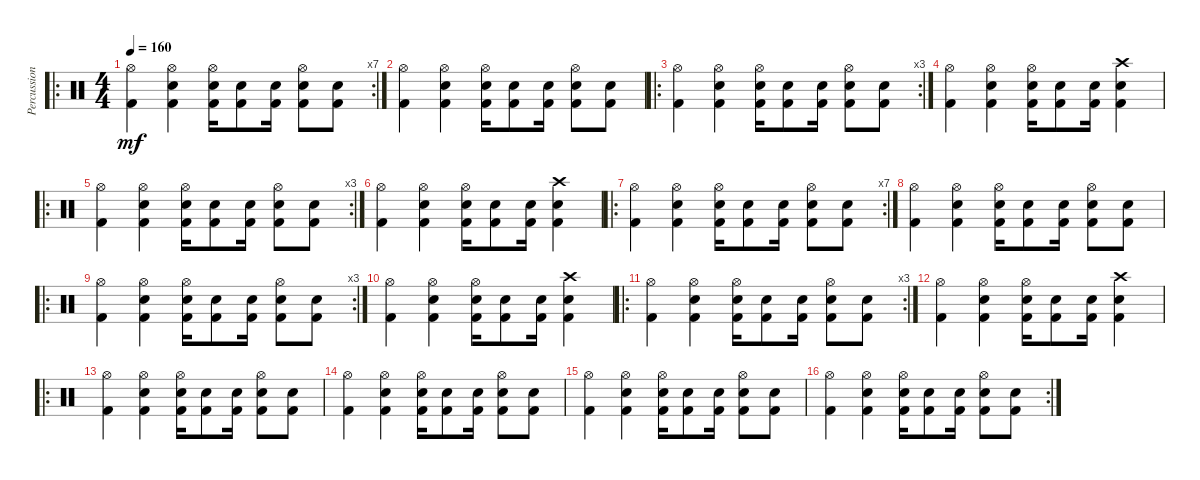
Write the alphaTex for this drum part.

\track ("Percussion" "Percussion") {instrument percussion}
\staff {score}
\articulation defaults
\ro
\rc 7
\ts (4 4)
\tempo 160
\clef neutral
\ks c
("Hi-Hat (open)" "Kick (hit) 2").4{dy mf} ("Hi-Hat (open)" "Electric Snare (hit)" "Kick (hit) 2").4 ("Hi-Hat (open)" "Electric Snare (hit)" "Kick (hit) 2").16 ("Electric Snare (hit)" "Kick (hit) 2").8 ("Electric Snare (hit)" "Kick (hit) 2").16 ("Hi-Hat (open)" "Electric Snare (hit)" "Kick (hit) 2").8 ("Electric Snare (hit)" "Kick (hit) 2").8 |
("Hi-Hat (open)" "Kick (hit) 2").4 ("Hi-Hat (open)" "Electric Snare (hit)" "Kick (hit) 2").4 ("Hi-Hat (open)" "Electric Snare (hit)" "Kick (hit) 2").16 ("Electric Snare (hit)" "Kick (hit) 2").8 ("Electric Snare (hit)" "Kick (hit) 2").16 ("Hi-Hat (open)" "Electric Snare (hit)" "Kick (hit) 2").8 ("Electric Snare (hit)" "Kick (hit) 2").8 |
\ro
\rc 3
("Hi-Hat (open)" "Kick (hit) 2").4 ("Hi-Hat (open)" "Electric Snare (hit)" "Kick (hit) 2").4 ("Hi-Hat (open)" "Electric Snare (hit)" "Kick (hit) 2").16 ("Electric Snare (hit)" "Kick (hit) 2").8 ("Electric Snare (hit)" "Kick (hit) 2").16 ("Hi-Hat (open)" "Electric Snare (hit)" "Kick (hit) 2").8 ("Electric Snare (hit)" "Kick (hit) 2").8 |
("Hi-Hat (open)" "Kick (hit) 2").4 ("Hi-Hat (open)" "Electric Snare (hit)" "Kick (hit) 2").4 ("Hi-Hat (open)" "Electric Snare (hit)" "Kick (hit) 2").16 ("Electric Snare (hit)" "Kick (hit) 2").8 ("Electric Snare (hit)" "Kick (hit) 2").16 ("Crash high (hit)" "Electric Snare (hit)" "Kick (hit) 2").4 |
\ro
\rc 3
("Hi-Hat (open)" "Kick (hit) 2").4 ("Hi-Hat (open)" "Electric Snare (hit)" "Kick (hit) 2").4 ("Hi-Hat (open)" "Electric Snare (hit)" "Kick (hit) 2").16 ("Electric Snare (hit)" "Kick (hit) 2").8 ("Electric Snare (hit)" "Kick (hit) 2").16 ("Hi-Hat (open)" "Electric Snare (hit)" "Kick (hit) 2").8 ("Electric Snare (hit)" "Kick (hit) 2").8 |
("Hi-Hat (open)" "Kick (hit) 2").4 ("Hi-Hat (open)" "Electric Snare (hit)" "Kick (hit) 2").4 ("Hi-Hat (open)" "Electric Snare (hit)" "Kick (hit) 2").16 ("Electric Snare (hit)" "Kick (hit) 2").8 ("Electric Snare (hit)" "Kick (hit) 2").16 ("Crash high (hit)" "Electric Snare (hit)" "Kick (hit) 2").4 |
\ro
\rc 7
("Hi-Hat (open)" "Kick (hit) 2").4 ("Hi-Hat (open)" "Electric Snare (hit)" "Kick (hit) 2").4 ("Hi-Hat (open)" "Electric Snare (hit)" "Kick (hit) 2").16 ("Electric Snare (hit)" "Kick (hit) 2").8 ("Electric Snare (hit)" "Kick (hit) 2").16 ("Hi-Hat (open)" "Electric Snare (hit)" "Kick (hit) 2").8 ("Electric Snare (hit)" "Kick (hit) 2").8 |
("Hi-Hat (open)" "Kick (hit) 2").4 ("Hi-Hat (open)" "Electric Snare (hit)" "Kick (hit) 2").4 ("Hi-Hat (open)" "Electric Snare (hit)" "Kick (hit) 2").16 ("Electric Snare (hit)" "Kick (hit) 2").8 ("Electric Snare (hit)" "Kick (hit) 2").16 ("Hi-Hat (open)" "Electric Snare (hit)" "Kick (hit) 2").8 ("Electric Snare (hit)" "Kick (hit) 2").8 |
\ro
\rc 3
("Hi-Hat (open)" "Kick (hit) 2").4 ("Hi-Hat (open)" "Electric Snare (hit)" "Kick (hit) 2").4 ("Hi-Hat (open)" "Electric Snare (hit)" "Kick (hit) 2").16 ("Electric Snare (hit)" "Kick (hit) 2").8 ("Electric Snare (hit)" "Kick (hit) 2").16 ("Hi-Hat (open)" "Electric Snare (hit)" "Kick (hit) 2").8 ("Electric Snare (hit)" "Kick (hit) 2").8 |
("Hi-Hat (open)" "Kick (hit) 2").4 ("Hi-Hat (open)" "Electric Snare (hit)" "Kick (hit) 2").4 ("Hi-Hat (open)" "Electric Snare (hit)" "Kick (hit) 2").16 ("Electric Snare (hit)" "Kick (hit) 2").8 ("Electric Snare (hit)" "Kick (hit) 2").16 ("Crash high (hit)" "Electric Snare (hit)" "Kick (hit) 2").4 |
\ro
\rc 3
("Hi-Hat (open)" "Kick (hit) 2").4 ("Hi-Hat (open)" "Electric Snare (hit)" "Kick (hit) 2").4 ("Hi-Hat (open)" "Electric Snare (hit)" "Kick (hit) 2").16 ("Electric Snare (hit)" "Kick (hit) 2").8 ("Electric Snare (hit)" "Kick (hit) 2").16 ("Hi-Hat (open)" "Electric Snare (hit)" "Kick (hit) 2").8 ("Electric Snare (hit)" "Kick (hit) 2").8 |
("Hi-Hat (open)" "Kick (hit) 2").4 ("Hi-Hat (open)" "Electric Snare (hit)" "Kick (hit) 2").4 ("Hi-Hat (open)" "Electric Snare (hit)" "Kick (hit) 2").16 ("Electric Snare (hit)" "Kick (hit) 2").8 ("Electric Snare (hit)" "Kick (hit) 2").16 ("Crash high (hit)" "Electric Snare (hit)" "Kick (hit) 2").4 |
\ro
("Hi-Hat (open)" "Kick (hit) 2").4 ("Hi-Hat (open)" "Electric Snare (hit)" "Kick (hit) 2").4 ("Hi-Hat (open)" "Electric Snare (hit)" "Kick (hit) 2").16 ("Electric Snare (hit)" "Kick (hit) 2").8 ("Electric Snare (hit)" "Kick (hit) 2").16 ("Hi-Hat (open)" "Electric Snare (hit)" "Kick (hit) 2").8 ("Electric Snare (hit)" "Kick (hit) 2").8 |
("Hi-Hat (open)" "Kick (hit) 2").4 ("Hi-Hat (open)" "Electric Snare (hit)" "Kick (hit) 2").4 ("Hi-Hat (open)" "Electric Snare (hit)" "Kick (hit) 2").16 ("Electric Snare (hit)" "Kick (hit) 2").8 ("Electric Snare (hit)" "Kick (hit) 2").16 ("Hi-Hat (open)" "Electric Snare (hit)" "Kick (hit) 2").8 ("Electric Snare (hit)" "Kick (hit) 2").8 |
("Hi-Hat (open)" "Kick (hit) 2").4 ("Hi-Hat (open)" "Electric Snare (hit)" "Kick (hit) 2").4 ("Hi-Hat (open)" "Electric Snare (hit)" "Kick (hit) 2").16 ("Electric Snare (hit)" "Kick (hit) 2").8 ("Electric Snare (hit)" "Kick (hit) 2").16 ("Hi-Hat (open)" "Electric Snare (hit)" "Kick (hit) 2").8 ("Electric Snare (hit)" "Kick (hit) 2").8 |
\rc 2
("Hi-Hat (open)" "Kick (hit) 2").4 ("Hi-Hat (open)" "Electric Snare (hit)" "Kick (hit) 2").4 ("Hi-Hat (open)" "Electric Snare (hit)" "Kick (hit) 2").16 ("Electric Snare (hit)" "Kick (hit) 2").8 ("Electric Snare (hit)" "Kick (hit) 2").16 ("Hi-Hat (open)" "Electric Snare (hit)" "Kick (hit) 2").8 ("Electric Snare (hit)" "Kick (hit) 2").8
